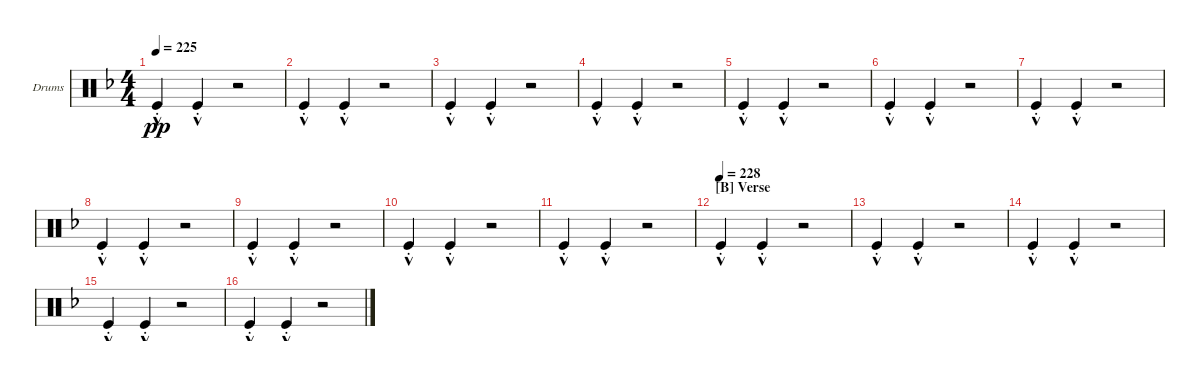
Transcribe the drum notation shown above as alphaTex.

\defaultSystemsLayout 4
\bracketExtendMode groupsimilarinstruments
\firstSystemTrackNameOrientation horizontal
\otherSystemsTrackNameOrientation horizontal
\track ("Drumkit" "Drums") {instrument percussion}
\staff {score}
\articulation defaults
\ts (4 4)
\tempo 225
\clef neutral
\ks dminor "Kick (hit)"{hac st}.4{dy pp} "Kick (hit)"{hac st}.4
r.2 |
"Kick (hit)"{hac st}.4 "Kick (hit)"{hac st}.4 r.2 |
"Kick (hit)"{hac st}.4 "Kick (hit)"{hac st}.4 r.2 |
"Kick (hit)"{hac st}.4 "Kick (hit)"{hac st}.4 r.2 |
"Kick (hit)"{hac st}.4 "Kick (hit)"{hac st}.4 r.2 |
"Kick (hit)"{hac st}.4 "Kick (hit)"{hac st}.4 r.2 |
"Kick (hit)"{hac st}.4 "Kick (hit)"{hac st}.4 r.2 |
"Kick (hit)"{hac st}.4 "Kick (hit)"{hac st}.4 r.2 |
"Kick (hit)"{hac st}.4 "Kick (hit)"{hac st}.4 r.2 |
"Kick (hit)"{hac st}.4 "Kick (hit)"{hac st}.4 r.2 |
"Kick (hit)"{hac st}.4 "Kick (hit)"{hac st}.4 r.2 |
\section ("B" "Verse")
\tempo (228)
"Kick (hit)"{hac st}.4 "Kick (hit)"{hac st}.4 r.2 |
"Kick (hit)"{hac st}.4 "Kick (hit)"{hac st}.4 r.2 |
"Kick (hit)"{hac st}.4 "Kick (hit)"{hac st}.4 r.2 |
"Kick (hit)"{hac st}.4 "Kick (hit)"{hac st}.4 r.2 |
"Kick (hit)"{hac st}.4 "Kick (hit)"{hac st}.4 r.2
